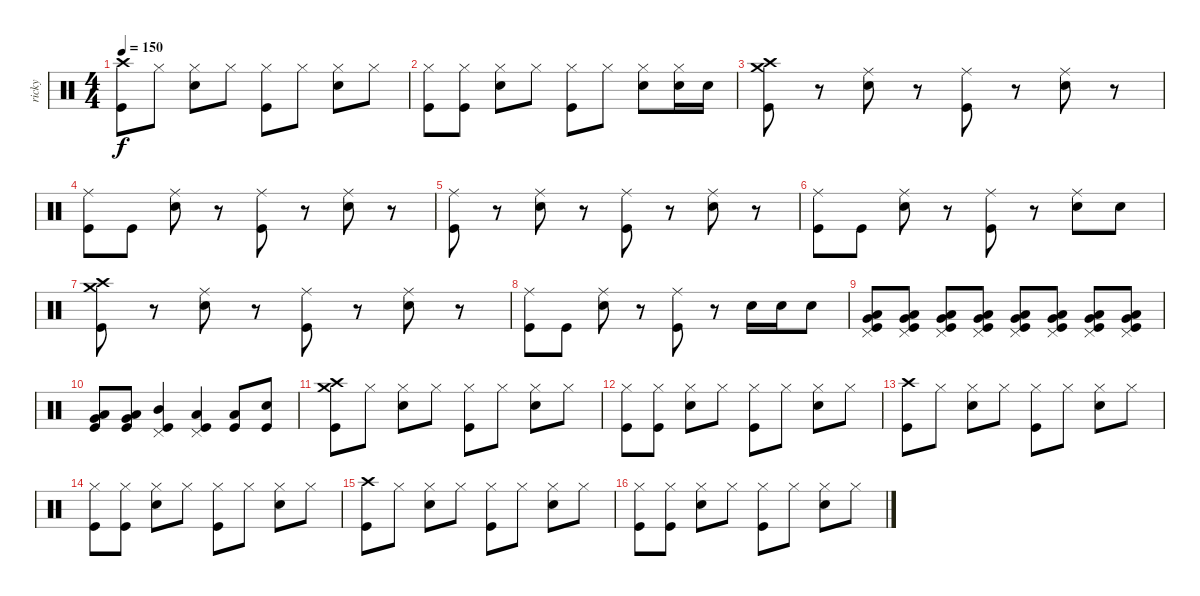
\track ("ricky" "ricky") {instrument percussion}
\staff {score}
\articulation defaults
\ts (4 4)
\tempo 150
\clef neutral
\ks c
("Crash high (hit)" "Kick (hit)").8{dy f} "Hi-Hat (closed)".8 ("Hi-Hat (closed)" "Electric Snare (hit)").8 "Hi-Hat (closed)".8 ("Hi-Hat (closed)" "Kick (hit)").8 "Hi-Hat (closed)".8 ("Hi-Hat (closed)" "Electric Snare (hit)").8 "Hi-Hat (closed)".8 |
("Hi-Hat (closed)" "Kick (hit)").8 ("Hi-Hat (closed)" "Kick (hit)").8 ("Hi-Hat (closed)" "Electric Snare (hit)").8 "Hi-Hat (closed)".8 ("Hi-Hat (closed)" "Kick (hit)").8 "Hi-Hat (closed)".8 ("Hi-Hat (closed)" "Electric Snare (hit)").8 ("Hi-Hat (closed)" "Electric Snare (hit)").16 "Electric Snare (hit)".16 |
("Crash medium (hit)" "Crash high (hit)" "Kick (hit)").8 r.8 ("Ride (middle)" "Electric Snare (hit)").8 r.8 ("Ride (middle)" "Kick (hit)").8 r.8 ("Ride (middle)" "Electric Snare (hit)").8 r.8 |
("Ride (middle)" "Kick (hit)").8 "Kick (hit)".8 ("Ride (middle)" "Electric Snare (hit)").8 r.8 ("Ride (middle)" "Kick (hit)").8 r.8 ("Ride (middle)" "Electric Snare (hit)").8 r.8 |
("Ride (middle)" "Kick (hit)").8 r.8 ("Ride (middle)" "Electric Snare (hit)").8 r.8 ("Ride (middle)" "Kick (hit)").8 r.8 ("Ride (middle)" "Electric Snare (hit)").8 r.8 |
("Ride (middle)" "Kick (hit)").8 "Kick (hit)".8 ("Ride (middle)" "Electric Snare (hit)").8 r.8 ("Ride (middle)" "Kick (hit)").8 r.8 ("Ride (middle)" "Electric Snare (hit)").8 "Electric Snare (hit)".8 |
("Crash medium (hit)" "Crash high (hit)" "Kick (hit)").8 r.8 ("Ride (middle)" "Electric Snare (hit)").8 r.8 ("Ride (middle)" "Kick (hit)").8 r.8 ("Ride (middle)" "Electric Snare (hit)").8 r.8 |
("Ride (middle)" "Kick (hit)").8 "Kick (hit)".8 ("Ride (middle)" "Electric Snare (hit)").8 r.8 ("Ride (middle)" "Kick (hit)").8 r.8 "Electric Snare (hit)".16 "Electric Snare (hit)".16 "Electric Snare (hit)".8 |
("Pedal Hi-Hat (hit)" "Low Tom (hit)" "Very Low Tom (hit)" "Kick (hit)").8 ("Pedal Hi-Hat (hit)" "Low Tom (hit)" "Very Low Tom (hit)" "Kick (hit)").8 ("Pedal Hi-Hat (hit)" "Low Tom (hit)" "Very Low Tom (hit)" "Kick (hit)").8 ("Pedal Hi-Hat (hit)" "Low Tom (hit)" "Very Low Tom (hit)" "Kick (hit)").8 ("Pedal Hi-Hat (hit)" "Low Tom (hit)" "Very Low Tom (hit)" "Kick (hit)").8 ("Pedal Hi-Hat (hit)" "Low Tom (hit)" "Very Low Tom (hit)" "Kick (hit)").8 ("Pedal Hi-Hat (hit)" "Low Tom (hit)" "Very Low Tom (hit)" "Kick (hit)").8 ("Pedal Hi-Hat (hit)" "Low Tom (hit)" "Very Low Tom (hit)" "Kick (hit)").8 |
("Low Tom (hit)" "Very Low Tom (hit)" "Kick (hit)").8 ("Low Tom (hit)" "Very Low Tom (hit)" "Kick (hit)").8 ("Pedal Hi-Hat (hit)" "Mid Tom (hit)" "Kick (hit)").4 ("Pedal Hi-Hat (hit)" "Low Tom (hit)" "Kick (hit)").4 ("Low Tom (hit)" "Kick (hit)").8 ("Electric Snare (hit)" "Kick (hit)").8 |
("Crash medium (hit)" "Crash high (hit)" "Kick (hit)").8 "Hi-Hat (closed)".8 ("Hi-Hat (closed)" "Electric Snare (hit)").8 "Hi-Hat (closed)".8 ("Hi-Hat (closed)" "Kick (hit)").8 "Hi-Hat (closed)".8 ("Hi-Hat (closed)" "Electric Snare (hit)").8 "Hi-Hat (closed)".8 |
("Hi-Hat (closed)" "Kick (hit)").8 ("Hi-Hat (closed)" "Kick (hit)").8 ("Hi-Hat (closed)" "Electric Snare (hit)").8 "Hi-Hat (closed)".8 ("Hi-Hat (closed)" "Kick (hit)").8 "Hi-Hat (closed)".8 ("Hi-Hat (closed)" "Electric Snare (hit)").8 "Hi-Hat (closed)".8 |
("Crash high (hit)" "Kick (hit)").8 "Hi-Hat (closed)".8 ("Hi-Hat (closed)" "Electric Snare (hit)").8 "Hi-Hat (closed)".8 ("Hi-Hat (closed)" "Kick (hit)").8 "Hi-Hat (closed)".8 ("Hi-Hat (closed)" "Electric Snare (hit)").8 "Hi-Hat (closed)".8 |
("Hi-Hat (closed)" "Kick (hit)").8 ("Hi-Hat (closed)" "Kick (hit)").8 ("Hi-Hat (closed)" "Electric Snare (hit)").8 "Hi-Hat (closed)".8 ("Hi-Hat (closed)" "Kick (hit)").8 "Hi-Hat (closed)".8 ("Hi-Hat (closed)" "Electric Snare (hit)").8 "Hi-Hat (closed)".8 |
("Crash high (hit)" "Kick (hit)").8 "Hi-Hat (closed)".8 ("Hi-Hat (closed)" "Electric Snare (hit)").8 "Hi-Hat (closed)".8 ("Hi-Hat (closed)" "Kick (hit)").8 "Hi-Hat (closed)".8 ("Hi-Hat (closed)" "Electric Snare (hit)").8 "Hi-Hat (closed)".8 |
("Hi-Hat (closed)" "Kick (hit)").8 ("Hi-Hat (closed)" "Kick (hit)").8 ("Hi-Hat (closed)" "Electric Snare (hit)").8 "Hi-Hat (closed)".8 ("Hi-Hat (closed)" "Kick (hit)").8 "Hi-Hat (closed)".8 ("Hi-Hat (closed)" "Electric Snare (hit)").8 "Hi-Hat (closed)".8
